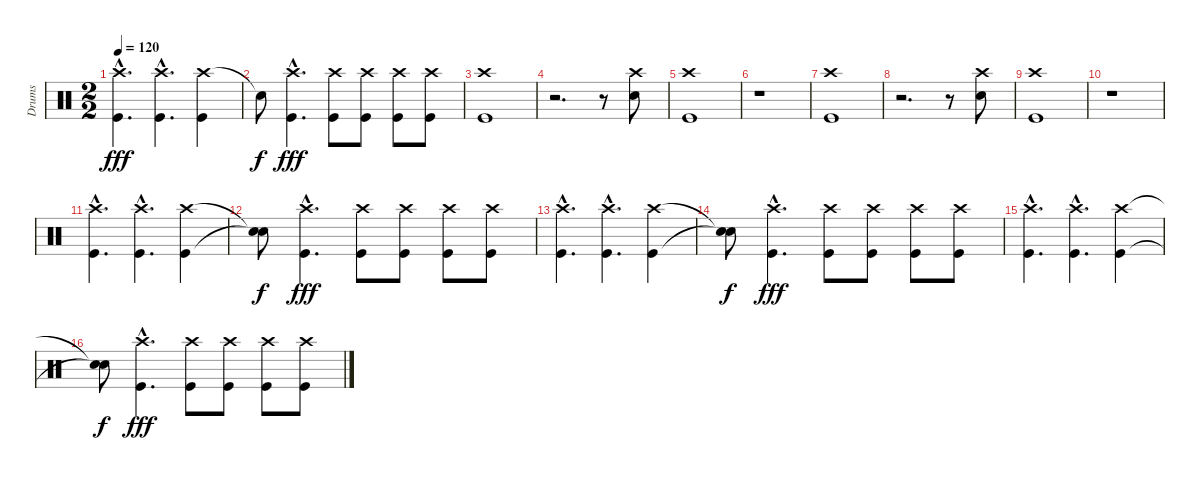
\track ("Drums" "Drums") {instrument percussion}
\staff {score}
\articulation defaults
\ts (2 2)
\tempo 120
\clef neutral
\ks c
("Crash high (hit)" "Kick (hit)"{hac}).4{d dy fff} ("Crash high (hit)" "Kick (hit)"{hac}).4{d} ("Crash high (hit)" "Kick (hit)").4 |
"Snare (hit)"{t}.8{dy f} ("Crash high (hit)" "Kick (hit)"{hac}).4{d dy fff} ("Crash high (hit)" "Kick (hit)").8 ("Crash high (hit)" "Kick (hit)").8 ("Crash high (hit)" "Kick (hit)").8 ("Crash high (hit)" "Kick (hit)").8 |
("Crash high (hit)" "Kick (hit)").1 |
r.2{d} r.8 ("Crash high (hit)" "Snare (hit)").8 |
("Crash high (hit)" "Kick (hit)").1 |
r.1 |
("Crash high (hit)" "Kick (hit)").1 |
r.2{d} r.8 ("Crash high (hit)" "Snare (hit)").8 |
("Crash high (hit)" "Kick (hit)").1 |
r.1 |
("Crash high (hit)"{hac} "Kick (hit)"{hac}).4{d} ("Crash high (hit)"{hac} "Kick (hit)"{hac}).4{d} ("Crash high (hit)" "Kick (hit)").4 |
("Snare (hit)"{t} "Snare (hit)"{t}).8{dy f} ("Crash high (hit)"{hac} "Kick (hit)"{hac}).4{d dy fff} ("Crash high (hit)" "Kick (hit)").8 ("Crash high (hit)" "Kick (hit)").8 ("Crash high (hit)" "Kick (hit)").8 ("Crash high (hit)" "Kick (hit)").8 |
("Crash high (hit)"{hac} "Kick (hit)"{hac}).4{d} ("Crash high (hit)"{hac} "Kick (hit)"{hac}).4{d} ("Crash high (hit)" "Kick (hit)").4 |
("Snare (hit)"{t} "Snare (hit)"{t}).8{dy f} ("Crash high (hit)"{hac} "Kick (hit)"{hac}).4{d dy fff} ("Crash high (hit)" "Kick (hit)").8 ("Crash high (hit)" "Kick (hit)").8 ("Crash high (hit)" "Kick (hit)").8 ("Crash high (hit)" "Kick (hit)").8 |
("Crash high (hit)"{hac} "Kick (hit)"{hac}).4{d} ("Crash high (hit)"{hac} "Kick (hit)"{hac}).4{d} ("Crash high (hit)" "Kick (hit)").4 |
("Snare (hit)"{t} "Snare (hit)"{t}).8{dy f} ("Crash high (hit)"{hac} "Kick (hit)"{hac}).4{d dy fff} ("Crash high (hit)" "Kick (hit)").8 ("Crash high (hit)" "Kick (hit)").8 ("Crash high (hit)" "Kick (hit)").8 ("Crash high (hit)" "Kick (hit)").8
